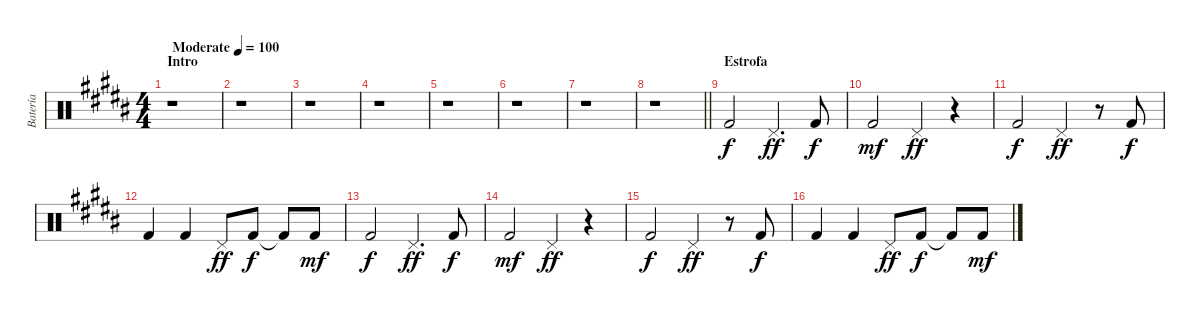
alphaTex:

\track ("Batería" "Batería") {instrument percussion}
\staff {score}
\articulation defaults
\ts (4 4)
\section ("" "Intro")
\tempo (100 "Moderate")
\clef neutral
\ks g#minor
r.1{dy f} |
r.1 |
r.1 |
r.1 |
r.1 |
r.1 |
r.1 |
\barLineRight lightlight
r.1 |
\section ("" "Estrofa")
"Kick (hit) 2".2 "Pedal Hi-Hat (hit)".4{d dy ff} "Kick (hit) 2".8{dy f} |
"Kick (hit) 2".2{dy mf} "Pedal Hi-Hat (hit)".4{dy ff} r.4 |
"Kick (hit) 2".2{dy f} "Pedal Hi-Hat (hit)".4{dy ff} r.8 "Kick (hit) 2".8{dy f} |
"Kick (hit) 2".4 "Kick (hit) 2".4 "Pedal Hi-Hat (hit)".8{dy ff} "Kick (hit) 2".8{dy f} "Kick (hit) 2"{t}.8 "Kick (hit) 2".8{dy mf} |
"Kick (hit) 2".2{dy f} "Pedal Hi-Hat (hit)".4{d dy ff} "Kick (hit) 2".8{dy f} |
"Kick (hit) 2".2{dy mf} "Pedal Hi-Hat (hit)".4{dy ff} r.4 |
"Kick (hit) 2".2{dy f} "Pedal Hi-Hat (hit)".4{dy ff} r.8 "Kick (hit) 2".8{dy f} |
"Kick (hit) 2".4 "Kick (hit) 2".4 "Pedal Hi-Hat (hit)".8{dy ff} "Kick (hit) 2".8{dy f} "Kick (hit) 2"{t}.8 "Kick (hit) 2".8{dy mf}
